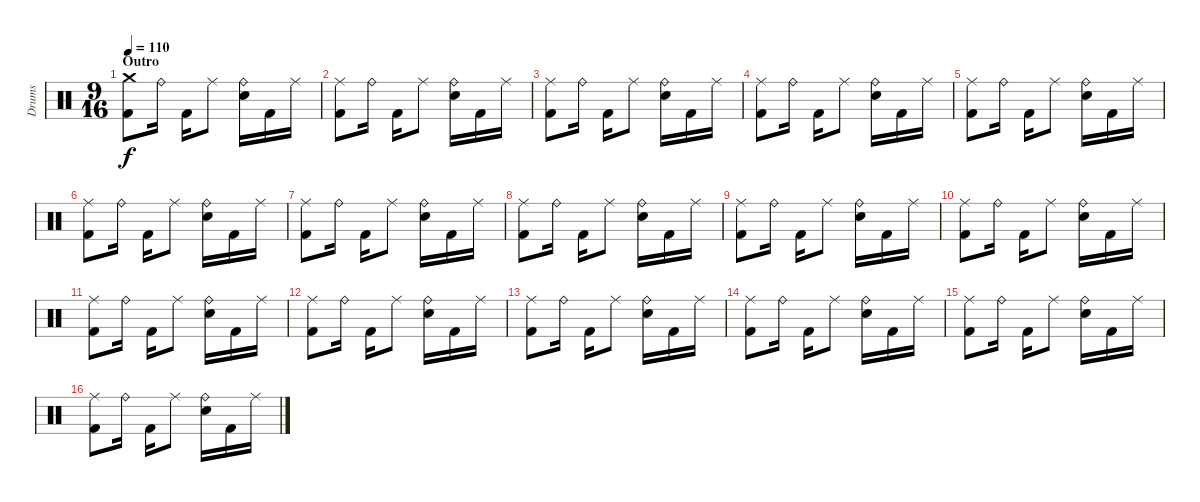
\track ("Drums" "Drums") {instrument percussion}
\staff {score}
\articulation defaults
\ts (9 16)
\section ("" "Outro")
\tempo 110
\clef neutral
\ks c
("Kick (hit) 2" "Crash medium (hit)").8{dy f} "Ride (bell)".16 "Kick (hit) 2".16 "Ride (middle)".8 ("Ride (bell)" "Electric Snare (hit)").16 "Kick (hit) 2".16 "Ride (middle)".16 |
("Kick (hit) 2" "Ride (middle)").8 "Ride (bell)".16 "Kick (hit) 2".16 "Ride (middle)".8 ("Ride (bell)" "Electric Snare (hit)").16 "Kick (hit) 2".16 "Ride (middle)".16 |
("Kick (hit) 2" "Ride (middle)").8 "Ride (bell)".16 "Kick (hit) 2".16 "Ride (middle)".8 ("Ride (bell)" "Electric Snare (hit)").16 "Kick (hit) 2".16 "Ride (middle)".16 |
("Kick (hit) 2" "Ride (middle)").8 "Ride (bell)".16 "Kick (hit) 2".16 "Ride (middle)".8 ("Ride (bell)" "Electric Snare (hit)").16 "Kick (hit) 2".16 "Ride (middle)".16 |
("Kick (hit) 2" "Ride (middle)").8 "Ride (bell)".16 "Kick (hit) 2".16 "Ride (middle)".8 ("Ride (bell)" "Electric Snare (hit)").16 "Kick (hit) 2".16 "Ride (middle)".16 |
("Kick (hit) 2" "Ride (middle)").8 "Ride (bell)".16 "Kick (hit) 2".16 "Ride (middle)".8 ("Ride (bell)" "Electric Snare (hit)").16 "Kick (hit) 2".16 "Ride (middle)".16 |
("Kick (hit) 2" "Ride (middle)").8 "Ride (bell)".16 "Kick (hit) 2".16 "Ride (middle)".8 ("Ride (bell)" "Electric Snare (hit)").16 "Kick (hit) 2".16 "Ride (middle)".16 |
("Kick (hit) 2" "Ride (middle)").8 "Ride (bell)".16 "Kick (hit) 2".16 "Ride (middle)".8 ("Ride (bell)" "Electric Snare (hit)").16 "Kick (hit) 2".16 "Ride (middle)".16 |
("Kick (hit) 2" "Ride (middle)").8 "Ride (bell)".16 "Kick (hit) 2".16 "Ride (middle)".8 ("Ride (bell)" "Electric Snare (hit)").16 "Kick (hit) 2".16 "Ride (middle)".16 |
("Kick (hit) 2" "Ride (middle)").8 "Ride (bell)".16 "Kick (hit) 2".16 "Ride (middle)".8 ("Ride (bell)" "Electric Snare (hit)").16 "Kick (hit) 2".16 "Ride (middle)".16 |
("Kick (hit) 2" "Ride (middle)").8 "Ride (bell)".16 "Kick (hit) 2".16 "Ride (middle)".8 ("Ride (bell)" "Electric Snare (hit)").16 "Kick (hit) 2".16 "Ride (middle)".16 |
("Kick (hit) 2" "Ride (middle)").8 "Ride (bell)".16 "Kick (hit) 2".16 "Ride (middle)".8 ("Ride (bell)" "Electric Snare (hit)").16 "Kick (hit) 2".16 "Ride (middle)".16 |
("Kick (hit) 2" "Ride (middle)").8 "Ride (bell)".16 "Kick (hit) 2".16 "Ride (middle)".8 ("Ride (bell)" "Electric Snare (hit)").16 "Kick (hit) 2".16 "Ride (middle)".16 |
("Kick (hit) 2" "Ride (middle)").8 "Ride (bell)".16 "Kick (hit) 2".16 "Ride (middle)".8 ("Ride (bell)" "Electric Snare (hit)").16 "Kick (hit) 2".16 "Ride (middle)".16 |
("Kick (hit) 2" "Ride (middle)").8 "Ride (bell)".16 "Kick (hit) 2".16 "Ride (middle)".8 ("Ride (bell)" "Electric Snare (hit)").16 "Kick (hit) 2".16 "Ride (middle)".16 |
("Kick (hit) 2" "Ride (middle)").8 "Ride (bell)".16 "Kick (hit) 2".16 "Ride (middle)".8 ("Ride (bell)" "Electric Snare (hit)").16 "Kick (hit) 2".16 "Ride (middle)".16
